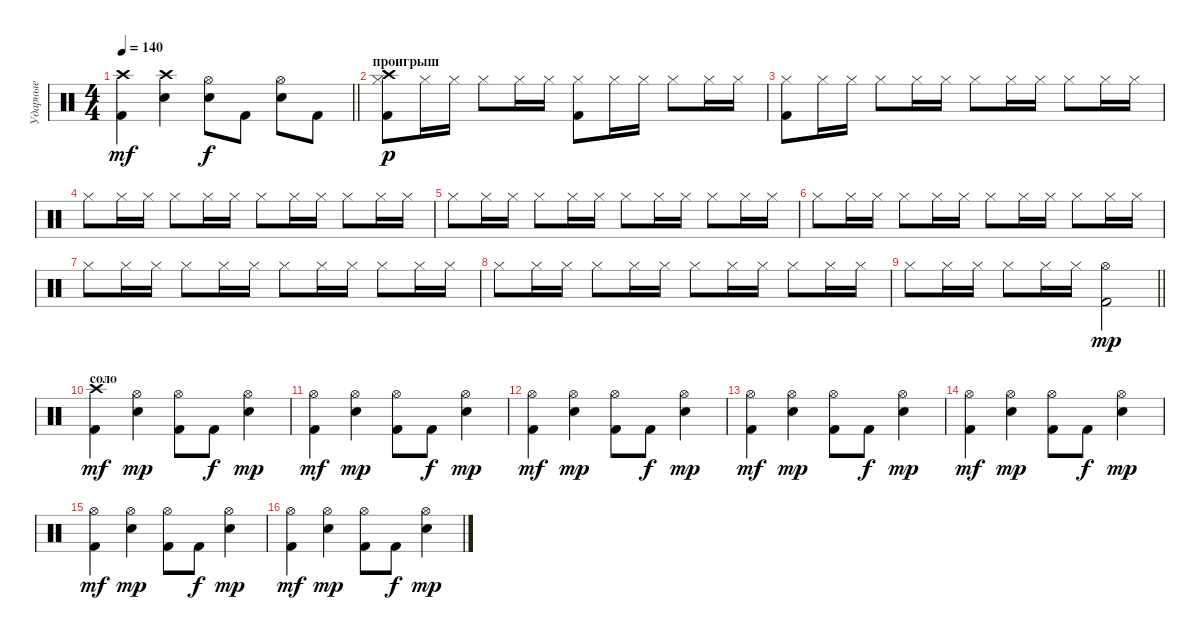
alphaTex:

\track ("Ударные" "Ударные") {instrument percussion}
\staff {score}
\articulation defaults
\ts (4 4)
\tempo 140
\clef neutral
\barLineRight lightlight
\ks c
("Kick (hit) 2" "Crash high (hit)").4{dy mf} ("Snare (hit) 2" "Crash high (hit)").4 ("Snare (hit) 2" "Hi-Hat (open)").8{dy f} "Kick (hit) 2".8 ("Snare (hit) 2" "Hi-Hat (open)").8 "Kick (hit) 2".8 |
\section ("" "проигрыш")
("Kick (hit) 2" "Hi-Hat (closed)" "Crash high (hit)").8{dy p} "Hi-Hat (closed)".16 "Hi-Hat (closed)".16 "Hi-Hat (closed)".8 "Hi-Hat (closed)".16 "Hi-Hat (closed)".16 ("Kick (hit) 2" "Hi-Hat (closed)").8 "Hi-Hat (closed)".16 "Hi-Hat (closed)".16 "Hi-Hat (closed)".8 "Hi-Hat (closed)".16 "Hi-Hat (closed)".16 |
("Kick (hit) 2" "Hi-Hat (closed)").8 "Hi-Hat (closed)".16 "Hi-Hat (closed)".16 "Hi-Hat (closed)".8 "Hi-Hat (closed)".16 "Hi-Hat (closed)".16 "Hi-Hat (closed)".8 "Hi-Hat (closed)".16 "Hi-Hat (closed)".16 "Hi-Hat (closed)".8 "Hi-Hat (closed)".16 "Hi-Hat (closed)".16 |
"Hi-Hat (closed)".8 "Hi-Hat (closed)".16 "Hi-Hat (closed)".16 "Hi-Hat (closed)".8 "Hi-Hat (closed)".16 "Hi-Hat (closed)".16 "Hi-Hat (closed)".8 "Hi-Hat (closed)".16 "Hi-Hat (closed)".16 "Hi-Hat (closed)".8 "Hi-Hat (closed)".16 "Hi-Hat (closed)".16 |
"Hi-Hat (closed)".8 "Hi-Hat (closed)".16 "Hi-Hat (closed)".16 "Hi-Hat (closed)".8 "Hi-Hat (closed)".16 "Hi-Hat (closed)".16 "Hi-Hat (closed)".8 "Hi-Hat (closed)".16 "Hi-Hat (closed)".16 "Hi-Hat (closed)".8 "Hi-Hat (closed)".16 "Hi-Hat (closed)".16 |
"Hi-Hat (closed)".8 "Hi-Hat (closed)".16 "Hi-Hat (closed)".16 "Hi-Hat (closed)".8 "Hi-Hat (closed)".16 "Hi-Hat (closed)".16 "Hi-Hat (closed)".8 "Hi-Hat (closed)".16 "Hi-Hat (closed)".16 "Hi-Hat (closed)".8 "Hi-Hat (closed)".16 "Hi-Hat (closed)".16 |
"Hi-Hat (closed)".8 "Hi-Hat (closed)".16 "Hi-Hat (closed)".16 "Hi-Hat (closed)".8 "Hi-Hat (closed)".16 "Hi-Hat (closed)".16 "Hi-Hat (closed)".8 "Hi-Hat (closed)".16 "Hi-Hat (closed)".16 "Hi-Hat (closed)".8 "Hi-Hat (closed)".16 "Hi-Hat (closed)".16 |
"Hi-Hat (closed)".8 "Hi-Hat (closed)".16 "Hi-Hat (closed)".16 "Hi-Hat (closed)".8 "Hi-Hat (closed)".16 "Hi-Hat (closed)".16 "Hi-Hat (closed)".8 "Hi-Hat (closed)".16 "Hi-Hat (closed)".16 "Hi-Hat (closed)".8 "Hi-Hat (closed)".16 "Hi-Hat (closed)".16 |
\barLineRight lightlight "Hi-Hat (closed)".8 "Hi-Hat (closed)".16 "Hi-Hat (closed)".16 "Hi-Hat (closed)".8 "Hi-Hat (closed)".16 "Hi-Hat (closed)".16
("Kick (hit) 2" "Hi-Hat (open)").2{dy mp} |
\section ("" "соло")
("Kick (hit) 2" "Crash high (hit)").4{dy mf} ("Snare (hit) 2" "Hi-Hat (open)").4{dy mp} ("Kick (hit) 2" "Hi-Hat (open)").8 "Kick (hit) 2".8{dy f} ("Snare (hit) 2" "Hi-Hat (open)").4{dy mp} |
("Kick (hit) 2" "Hi-Hat (open)").4{dy mf} ("Snare (hit) 2" "Hi-Hat (open)").4{dy mp} ("Kick (hit) 2" "Hi-Hat (open)").8 "Kick (hit) 2".8{dy f} ("Snare (hit) 2" "Hi-Hat (open)").4{dy mp} |
("Kick (hit) 2" "Hi-Hat (open)").4{dy mf} ("Snare (hit) 2" "Hi-Hat (open)").4{dy mp} ("Kick (hit) 2" "Hi-Hat (open)").8 "Kick (hit) 2".8{dy f} ("Snare (hit) 2" "Hi-Hat (open)").4{dy mp} |
("Kick (hit) 2" "Hi-Hat (open)").4{dy mf} ("Snare (hit) 2" "Hi-Hat (open)").4{dy mp} ("Kick (hit) 2" "Hi-Hat (open)").8 "Kick (hit) 2".8{dy f} ("Snare (hit) 2" "Hi-Hat (open)").4{dy mp} |
("Kick (hit) 2" "Hi-Hat (open)").4{dy mf} ("Snare (hit) 2" "Hi-Hat (open)").4{dy mp} ("Kick (hit) 2" "Hi-Hat (open)").8 "Kick (hit) 2".8{dy f} ("Snare (hit) 2" "Hi-Hat (open)").4{dy mp} |
("Kick (hit) 2" "Hi-Hat (open)").4{dy mf} ("Snare (hit) 2" "Hi-Hat (open)").4{dy mp} ("Kick (hit) 2" "Hi-Hat (open)").8 "Kick (hit) 2".8{dy f} ("Snare (hit) 2" "Hi-Hat (open)").4{dy mp} |
("Kick (hit) 2" "Hi-Hat (open)").4{dy mf} ("Snare (hit) 2" "Hi-Hat (open)").4{dy mp} ("Kick (hit) 2" "Hi-Hat (open)").8 "Kick (hit) 2".8{dy f} ("Snare (hit) 2" "Hi-Hat (open)").4{dy mp}
